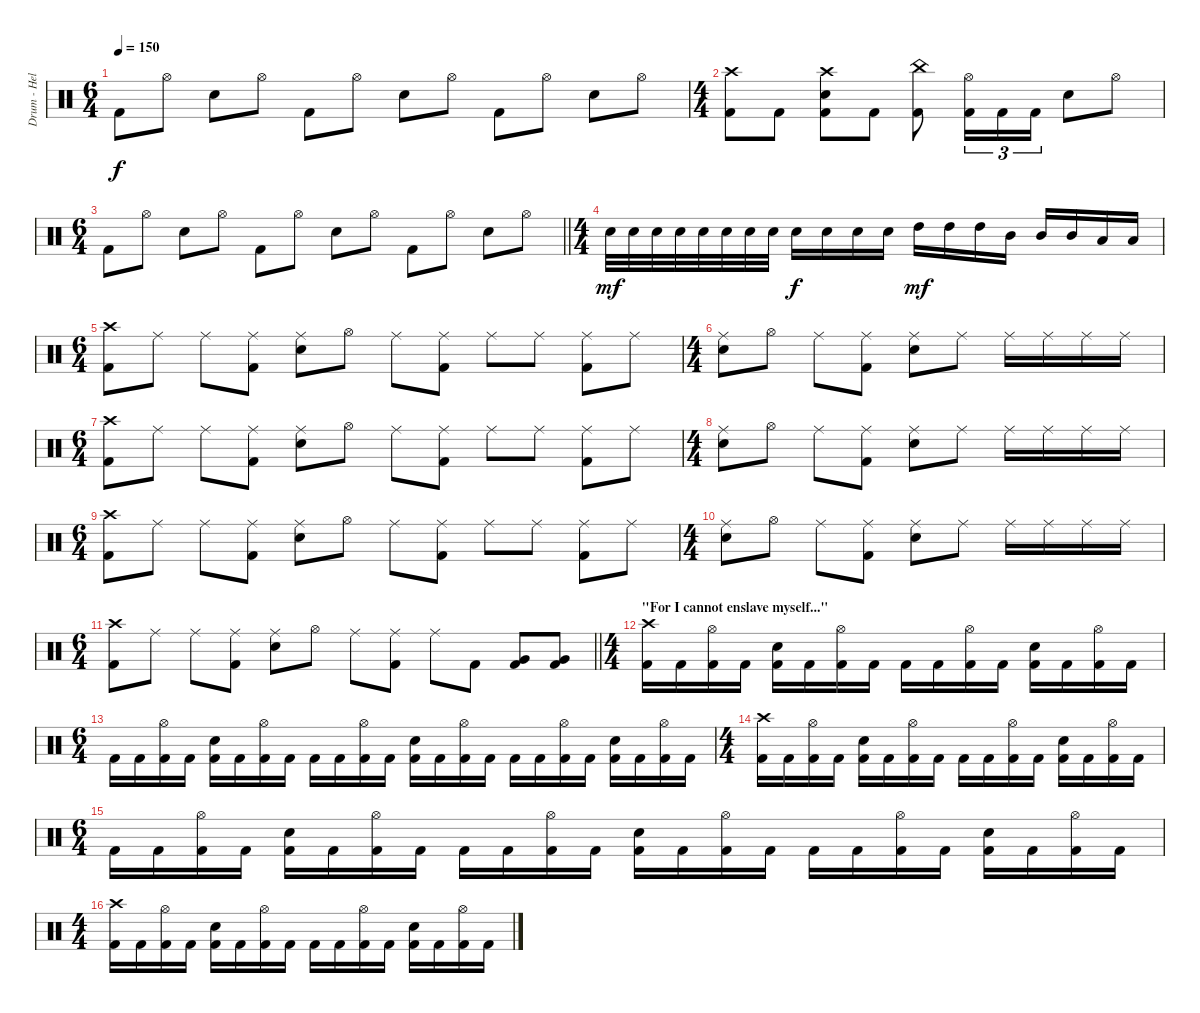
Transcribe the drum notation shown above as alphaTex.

\track ("Drum - Hellhammer" "Drum - Hel") {instrument percussion}
\staff {score}
\articulation defaults
\ts (6 4)
\tempo 150
\clef neutral
\ks c "Kick (hit) 2".8{dy f} "Hi-Hat (open)".8 "Electric Snare (hit)".8 "Hi-Hat (open)".8 "Kick (hit) 2".8 "Hi-Hat (open)".8 "Electric Snare (hit)".8 "Hi-Hat (open)".8 "Kick (hit) 2".8 "Hi-Hat (open)".8 "Electric Snare (hit)".8 "Hi-Hat (open)".8
|
\ts (4 4)
("Crash high (hit)" "Kick (hit) 2").8 "Kick (hit) 2".8 ("Crash high (hit)" "Electric Snare (hit)" "Kick (hit) 2").8 "Kick (hit) 2".8 ("China (hit)" "Kick (hit) 2").8 ("Hi-Hat (open)" "Kick (hit) 2").16{tu (3 2)} "Kick (hit) 2".16{tu (3 2)} "Kick (hit) 2".16{tu (3 2)} "Electric Snare (hit)".8 "Hi-Hat (open)".8 |
\ts (6 4)
\barLineRight lightlight "Kick (hit) 2".8 "Hi-Hat (open)".8 "Electric Snare (hit)".8 "Hi-Hat (open)".8 "Kick (hit) 2".8 "Hi-Hat (open)".8 "Electric Snare (hit)".8 "Hi-Hat (open)".8 "Kick (hit) 2".8 "Hi-Hat (open)".8 "Electric Snare (hit)".8 "Hi-Hat (open)".8
|
\ts (4 4)
\section ("" "")
"Electric Snare (hit)".32{dy mf} "Electric Snare (hit)".32 "Electric Snare (hit)".32 "Electric Snare (hit)".32 "Electric Snare (hit)".32 "Electric Snare (hit)".32 "Electric Snare (hit)".32 "Electric Snare (hit)".32 "Electric Snare (hit)".16{dy f} "Electric Snare (hit)".16 "Electric Snare (hit)".16 "Electric Snare (hit)".16 "High Tom (hit)".16{dy mf} "High Tom (hit)".16 "High Tom (hit)".16 "Mid Tom (hit)".16 "Mid Tom (hit)".16 "Mid Tom (hit)".16 "Low Tom (hit)".16 "Low Tom (hit)".16 |
\ts (6 4)
("Crash high (hit)" "Kick (hit) 2").8 "Ride (middle)".8 "Ride (middle)".8 ("Ride (middle)" "Kick (hit) 2").8 ("Ride (middle)" "Electric Snare (hit)").8 "Hi-Hat (open)".8 "Ride (middle)".8 ("Ride (middle)" "Kick (hit) 2").8 "Ride (middle)".8 "Ride (middle)".8 ("Ride (middle)" "Kick (hit) 2").8 "Ride (middle)".8 |
\ts (4 4)
("Ride (middle)" "Electric Snare (hit)").8 "Hi-Hat (open)".8 "Ride (middle)".8 ("Ride (middle)" "Kick (hit) 2").8 ("Ride (middle)" "Electric Snare (hit)").8 "Ride (middle)".8 "Ride (middle)".16 "Ride (middle)".16 "Ride (middle)".16 "Ride (middle)".16 |
\ts (6 4)
("Crash high (hit)" "Kick (hit) 2").8 "Ride (middle)".8 "Ride (middle)".8 ("Ride (middle)" "Kick (hit) 2").8 ("Ride (middle)" "Electric Snare (hit)").8 "Hi-Hat (open)".8 "Ride (middle)".8 ("Ride (middle)" "Kick (hit) 2").8 "Ride (middle)".8 "Ride (middle)".8 ("Ride (middle)" "Kick (hit) 2").8 "Ride (middle)".8 |
\ts (4 4)
("Ride (middle)" "Electric Snare (hit)").8 "Hi-Hat (open)".8 "Ride (middle)".8 ("Ride (middle)" "Kick (hit) 2").8 ("Ride (middle)" "Electric Snare (hit)").8 "Ride (middle)".8 "Ride (middle)".16 "Ride (middle)".16 "Ride (middle)".16 "Ride (middle)".16 |
\ts (6 4)
("Crash high (hit)" "Kick (hit) 2").8 "Ride (middle)".8 "Ride (middle)".8 ("Ride (middle)" "Kick (hit) 2").8 ("Ride (middle)" "Electric Snare (hit)").8 "Hi-Hat (open)".8 "Ride (middle)".8 ("Ride (middle)" "Kick (hit) 2").8 "Ride (middle)".8 "Ride (middle)".8 ("Ride (middle)" "Kick (hit) 2").8 "Ride (middle)".8 |
\ts (4 4)
("Ride (middle)" "Electric Snare (hit)").8 "Hi-Hat (open)".8 "Ride (middle)".8 ("Ride (middle)" "Kick (hit) 2").8 ("Ride (middle)" "Electric Snare (hit)").8 "Ride (middle)".8 "Ride (middle)".16 "Ride (middle)".16 "Ride (middle)".16 "Ride (middle)".16 |
\ts (6 4)
\barLineRight lightlight
("Crash high (hit)" "Kick (hit) 2").8 "Ride (middle)".8 "Ride (middle)".8 ("Ride (middle)" "Kick (hit) 2").8 ("Ride (middle)" "Electric Snare (hit)").8 "Hi-Hat (open)".8 "Ride (middle)".8 ("Ride (middle)" "Kick (hit) 2").8 "Ride (middle)".8 "Kick (hit) 2".8 ("Very Low Tom (hit)" "Kick (hit) 2").8 ("Very Low Tom (hit)" "Kick (hit) 2").8 |
\ts (4 4)
\section ("" "\"For I cannot enslave myself...\"")
("Crash high (hit)" "Kick (hit) 2").16 "Kick (hit) 2".16 ("Hi-Hat (open)" "Kick (hit) 2").16 "Kick (hit) 2".16 ("Electric Snare (hit)" "Kick (hit) 2").16 "Kick (hit) 2".16 ("Hi-Hat (open)" "Kick (hit) 2").16 "Kick (hit) 2".16 "Kick (hit) 2".16 "Kick (hit) 2".16 ("Hi-Hat (open)" "Kick (hit) 2").16 "Kick (hit) 2".16 ("Electric Snare (hit)" "Kick (hit) 2").16 "Kick (hit) 2".16 ("Hi-Hat (open)" "Kick (hit) 2").16 "Kick (hit) 2".16 |
\ts (6 4)
"Kick (hit) 2".16 "Kick (hit) 2".16 ("Hi-Hat (open)" "Kick (hit) 2").16 "Kick (hit) 2".16 ("Electric Snare (hit)" "Kick (hit) 2").16 "Kick (hit) 2".16 ("Hi-Hat (open)" "Kick (hit) 2").16 "Kick (hit) 2".16 "Kick (hit) 2".16 "Kick (hit) 2".16 ("Hi-Hat (open)" "Kick (hit) 2").16 "Kick (hit) 2".16 ("Electric Snare (hit)" "Kick (hit) 2").16 "Kick (hit) 2".16 ("Hi-Hat (open)" "Kick (hit) 2").16 "Kick (hit) 2".16 "Kick (hit) 2".16 "Kick (hit) 2".16 ("Hi-Hat (open)" "Kick (hit) 2").16 "Kick (hit) 2".16 ("Electric Snare (hit)" "Kick (hit) 2").16 "Kick (hit) 2".16 ("Hi-Hat (open)" "Kick (hit) 2").16 "Kick (hit) 2".16 |
\ts (4 4)
("Crash high (hit)" "Kick (hit) 2").16 "Kick (hit) 2".16 ("Hi-Hat (open)" "Kick (hit) 2").16 "Kick (hit) 2".16 ("Electric Snare (hit)" "Kick (hit) 2").16 "Kick (hit) 2".16 ("Hi-Hat (open)" "Kick (hit) 2").16 "Kick (hit) 2".16 "Kick (hit) 2".16 "Kick (hit) 2".16 ("Hi-Hat (open)" "Kick (hit) 2").16 "Kick (hit) 2".16 ("Electric Snare (hit)" "Kick (hit) 2").16 "Kick (hit) 2".16 ("Hi-Hat (open)" "Kick (hit) 2").16 "Kick (hit) 2".16 |
\ts (6 4)
"Kick (hit) 2".16 "Kick (hit) 2".16 ("Hi-Hat (open)" "Kick (hit) 2").16 "Kick (hit) 2".16 ("Electric Snare (hit)" "Kick (hit) 2").16 "Kick (hit) 2".16 ("Hi-Hat (open)" "Kick (hit) 2").16 "Kick (hit) 2".16 "Kick (hit) 2".16 "Kick (hit) 2".16 ("Hi-Hat (open)" "Kick (hit) 2").16 "Kick (hit) 2".16 ("Electric Snare (hit)" "Kick (hit) 2").16 "Kick (hit) 2".16 ("Hi-Hat (open)" "Kick (hit) 2").16 "Kick (hit) 2".16 "Kick (hit) 2".16 "Kick (hit) 2".16 ("Hi-Hat (open)" "Kick (hit) 2").16 "Kick (hit) 2".16 ("Electric Snare (hit)" "Kick (hit) 2").16 "Kick (hit) 2".16 ("Hi-Hat (open)" "Kick (hit) 2").16 "Kick (hit) 2".16 |
\ts (4 4)
("Crash high (hit)" "Kick (hit) 2").16 "Kick (hit) 2".16 ("Hi-Hat (open)" "Kick (hit) 2").16 "Kick (hit) 2".16 ("Electric Snare (hit)" "Kick (hit) 2").16 "Kick (hit) 2".16 ("Hi-Hat (open)" "Kick (hit) 2").16 "Kick (hit) 2".16 "Kick (hit) 2".16 "Kick (hit) 2".16 ("Hi-Hat (open)" "Kick (hit) 2").16 "Kick (hit) 2".16 ("Electric Snare (hit)" "Kick (hit) 2").16 "Kick (hit) 2".16 ("Hi-Hat (open)" "Kick (hit) 2").16 "Kick (hit) 2".16
